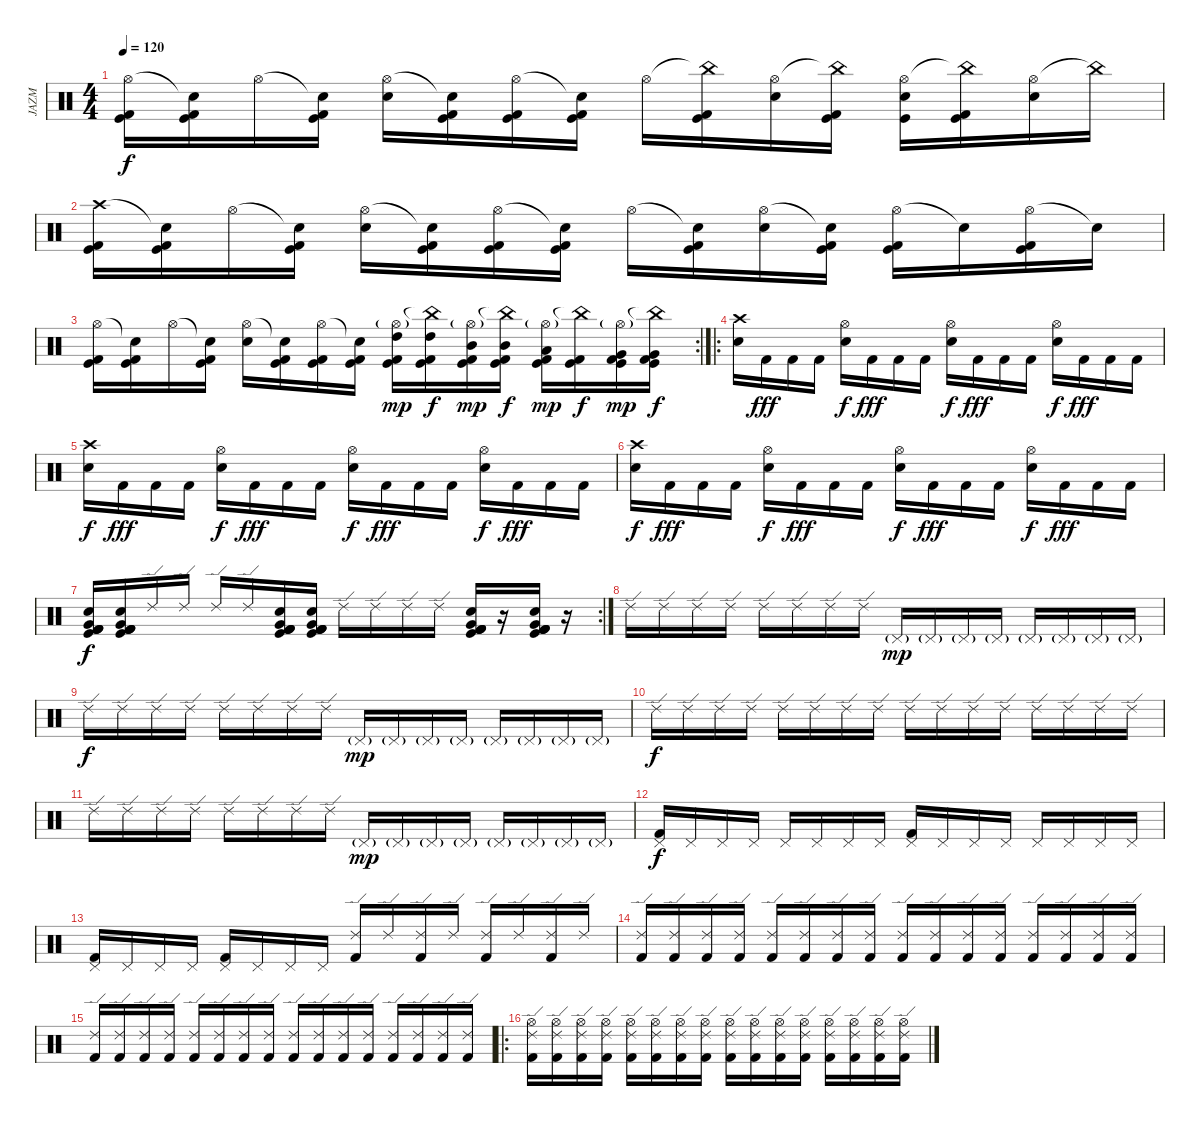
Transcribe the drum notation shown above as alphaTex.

\track ("JAZM" "JAZM") {instrument percussion}
\staff {score}
\articulation defaults
\ts (4 4)
\tempo 120
\clef neutral
\ks c
("Hi-Hat (open)" "Kick (hit) 2" "Kick (hit)").16{dy f} ("Snare (hit)"{t} "Kick (hit) 2" "Kick (hit)").16 "Hi-Hat (open)".16 ("Snare (hit)"{t} "Kick (hit) 2" "Kick (hit)").16 ("Hi-Hat (open)" "Electric Snare (hit)").16 ("Snare (hit)"{t} "Kick (hit) 2" "Kick (hit)").16 ("Hi-Hat (open)" "Kick (hit) 2" "Kick (hit)").16 ("Snare (hit)"{t} "Kick (hit) 2" "Kick (hit)").16 "Hi-Hat (open)".16 ("China (hit)"{t} "Kick (hit) 2" "Kick (hit)").16 ("Hi-Hat (open)" "Electric Snare (hit)").16 ("China (hit)"{t} "Kick (hit) 2" "Kick (hit)").16 ("Hi-Hat (open)" "Electric Snare (hit)" "Kick (hit)").16 ("China (hit)"{t} "Kick (hit) 2" "Kick (hit)").16 ("Hi-Hat (open)" "Electric Snare (hit)").16 "China (hit)"{t}.16 |
("Crash high (hit)" "Kick (hit) 2" "Kick (hit)").16 ("Snare (hit)"{t} "Kick (hit) 2" "Kick (hit)").16 "Hi-Hat (open)".16 ("Snare (hit)"{t} "Kick (hit) 2" "Kick (hit)").16 ("Hi-Hat (open)" "Electric Snare (hit)").16 ("Snare (hit)"{t} "Kick (hit) 2" "Kick (hit)").16 ("Hi-Hat (open)" "Kick (hit) 2" "Kick (hit)").16 ("Snare (hit)"{t} "Kick (hit) 2" "Kick (hit)").16 "Hi-Hat (open)".16 ("Snare (hit)"{t} "Kick (hit) 2" "Kick (hit)").16 ("Hi-Hat (open)" "Electric Snare (hit)").16 ("Snare (hit)"{t} "Kick (hit) 2" "Kick (hit)").16 ("Hi-Hat (open)" "Kick (hit) 2" "Kick (hit)").16 "Snare (hit)"{t}.16 ("Hi-Hat (open)" "Kick (hit) 2" "Kick (hit)").16 "Snare (hit)"{t}.16 |
\rc 2
("Hi-Hat (open)" "Kick (hit) 2" "Kick (hit)").16 ("Snare (hit)"{t} "Kick (hit) 2" "Kick (hit)").16 "Hi-Hat (open)".16 ("Snare (hit)"{t} "Kick (hit) 2" "Kick (hit)").16 ("Hi-Hat (open)" "Electric Snare (hit)").16 ("Snare (hit)"{t} "Kick (hit) 2" "Kick (hit)").16 ("Hi-Hat (open)" "Kick (hit) 2" "Kick (hit)").16 ("Snare (hit)"{t} "Kick (hit) 2" "Kick (hit)").16 ("Hi-Hat (open)"{g} "High Tom (hit)" "Kick (hit) 2" "Kick (hit)").16{dy mp} ("China (hit)"{t} "High Tom (hit)" "Kick (hit) 2" "Kick (hit)").16{dy f} ("Hi-Hat (open)"{g} "Mid Tom (hit)" "Kick (hit) 2" "Kick (hit)").16{dy mp} ("China (hit)"{t} "Mid Tom (hit)" "Kick (hit) 2" "Kick (hit)").16{dy f} ("Hi-Hat (open)"{g} "Low Tom (hit)" "Kick (hit) 2" "Kick (hit)").16{dy mp} ("China (hit)"{t} "Kick (hit) 2" "Kick (hit)").16{dy f} ("Hi-Hat (open)"{g} "Very Low Tom (hit)" "Kick (hit) 2" "Kick (hit)").16{dy mp} ("China (hit)"{t} "Very Low Tom (hit)" "Kick (hit) 2" "Kick (hit)").16{dy f} |
\ro
("Crash high (hit)" "Electric Snare (hit)").16 "Kick (hit) 2".16{dy fff} "Kick (hit) 2".16 "Kick (hit) 2".16 ("Hi-Hat (open)" "Electric Snare (hit)").16{dy f} "Kick (hit) 2".16{dy fff} "Kick (hit) 2".16 "Kick (hit) 2".16 ("Hi-Hat (open)" "Electric Snare (hit)").16{dy f} "Kick (hit) 2".16{dy fff} "Kick (hit) 2".16 "Kick (hit) 2".16 ("Hi-Hat (open)" "Electric Snare (hit)").16{dy f} "Kick (hit) 2".16{dy fff} "Kick (hit) 2".16 "Kick (hit) 2".16 |
("Crash high (hit)" "Electric Snare (hit)").16{dy f} "Kick (hit) 2".16{dy fff} "Kick (hit) 2".16 "Kick (hit) 2".16 ("Hi-Hat (open)" "Electric Snare (hit)").16{dy f} "Kick (hit) 2".16{dy fff} "Kick (hit) 2".16 "Kick (hit) 2".16 ("Hi-Hat (open)" "Electric Snare (hit)").16{dy f} "Kick (hit) 2".16{dy fff} "Kick (hit) 2".16 "Kick (hit) 2".16 ("Hi-Hat (open)" "Electric Snare (hit)").16{dy f} "Kick (hit) 2".16{dy fff} "Kick (hit) 2".16 "Kick (hit) 2".16 |
("Crash high (hit)" "Electric Snare (hit)").16{dy f} "Kick (hit) 2".16{dy fff} "Kick (hit) 2".16 "Kick (hit) 2".16 ("Hi-Hat (open)" "Electric Snare (hit)").16{dy f} "Kick (hit) 2".16{dy fff} "Kick (hit) 2".16 "Kick (hit) 2".16 ("Hi-Hat (open)" "Electric Snare (hit)").16{dy f} "Kick (hit) 2".16{dy fff} "Kick (hit) 2".16 "Kick (hit) 2".16 ("Hi-Hat (open)" "Electric Snare (hit)").16{dy f} "Kick (hit) 2".16{dy fff} "Kick (hit) 2".16 "Kick (hit) 2".16 |
\rc 2
("Kick (hit) 2" "Electric Snare (hit)" "Kick (hit)" "Kick (hit) 2" "Very Low Tom (hit)" "Kick (hit) 2").16{dy f} ("Kick (hit) 2" "Electric Snare (hit)" "Kick (hit)" "Kick (hit) 2" "Very Low Tom (hit)" "Kick (hit) 2").16 "Ride (edge) 2".16 "Ride (edge) 2".16 "Ride (edge) 2".16 "Ride (edge) 2".16 ("Kick (hit) 2" "Electric Snare (hit)" "Kick (hit)" "Kick (hit) 2" "Very Low Tom (hit)" "Kick (hit) 2").16 ("Kick (hit) 2" "Electric Snare (hit)" "Kick (hit)" "Kick (hit) 2" "Very Low Tom (hit)" "Kick (hit) 2").16 "Ride (edge) 2".16 "Ride (edge) 2".16 "Ride (edge) 2".16 "Ride (edge) 2".16 ("Kick (hit) 2" "Electric Snare (hit)" "Kick (hit)" "Kick (hit) 2" "Very Low Tom (hit)" "Kick (hit) 2").16 r.16 ("Kick (hit) 2" "Electric Snare (hit)" "Kick (hit)" "Kick (hit) 2" "Very Low Tom (hit)" "Kick (hit) 2").16 r.16 |
"Ride (edge) 2".16 "Ride (edge) 2".16 "Ride (edge) 2".16 "Ride (edge) 2".16 "Ride (edge) 2".16 "Ride (edge) 2".16 "Ride (edge) 2".16 "Ride (edge) 2".16 "Pedal Hi-Hat (hit)"{g}.16{dy mp} "Pedal Hi-Hat (hit)"{g}.16 "Pedal Hi-Hat (hit)"{g}.16 "Pedal Hi-Hat (hit)"{g}.16 "Pedal Hi-Hat (hit)"{g}.16 "Pedal Hi-Hat (hit)"{g}.16 "Pedal Hi-Hat (hit)"{g}.16 "Pedal Hi-Hat (hit)"{g}.16 |
"Ride (edge) 2".16{dy f} "Ride (edge) 2".16 "Ride (edge) 2".16 "Ride (edge) 2".16 "Ride (edge) 2".16 "Ride (edge) 2".16 "Ride (edge) 2".16 "Ride (edge) 2".16 "Pedal Hi-Hat (hit)"{g}.16{dy mp} "Pedal Hi-Hat (hit)"{g}.16 "Pedal Hi-Hat (hit)"{g}.16 "Pedal Hi-Hat (hit)"{g}.16 "Pedal Hi-Hat (hit)"{g}.16 "Pedal Hi-Hat (hit)"{g}.16 "Pedal Hi-Hat (hit)"{g}.16 "Pedal Hi-Hat (hit)"{g}.16 |
"Ride (edge) 2".16{dy f} "Ride (edge) 2".16 "Ride (edge) 2".16 "Ride (edge) 2".16 "Ride (edge) 2".16 "Ride (edge) 2".16 "Ride (edge) 2".16 "Ride (edge) 2".16 "Ride (edge) 2".16 "Ride (edge) 2".16 "Ride (edge) 2".16 "Ride (edge) 2".16 "Ride (edge) 2".16 "Ride (edge) 2".16 "Ride (edge) 2".16 "Ride (edge) 2".16 |
"Ride (edge) 2".16 "Ride (edge) 2".16 "Ride (edge) 2".16 "Ride (edge) 2".16 "Ride (edge) 2".16 "Ride (edge) 2".16 "Ride (edge) 2".16 "Ride (edge) 2".16 "Pedal Hi-Hat (hit)"{g}.16{dy mp} "Pedal Hi-Hat (hit)"{g}.16 "Pedal Hi-Hat (hit)"{g}.16 "Pedal Hi-Hat (hit)"{g}.16 "Pedal Hi-Hat (hit)"{g}.16 "Pedal Hi-Hat (hit)"{g}.16 "Pedal Hi-Hat (hit)"{g}.16 "Pedal Hi-Hat (hit)"{g}.16 |
("Kick (hit) 2" "Pedal Hi-Hat (hit)").16{dy f} "Pedal Hi-Hat (hit)".16 "Pedal Hi-Hat (hit)".16 "Pedal Hi-Hat (hit)".16 "Pedal Hi-Hat (hit)".16 "Pedal Hi-Hat (hit)".16 "Pedal Hi-Hat (hit)".16 "Pedal Hi-Hat (hit)".16 ("Kick (hit) 2" "Pedal Hi-Hat (hit)").16 "Pedal Hi-Hat (hit)".16 "Pedal Hi-Hat (hit)".16 "Pedal Hi-Hat (hit)".16 "Pedal Hi-Hat (hit)".16 "Pedal Hi-Hat (hit)".16 "Pedal Hi-Hat (hit)".16 "Pedal Hi-Hat (hit)".16 |
("Kick (hit) 2" "Pedal Hi-Hat (hit)").16 "Pedal Hi-Hat (hit)".16 "Pedal Hi-Hat (hit)".16 "Pedal Hi-Hat (hit)".16 ("Kick (hit) 2" "Pedal Hi-Hat (hit)").16 "Pedal Hi-Hat (hit)".16 "Pedal Hi-Hat (hit)".16 "Pedal Hi-Hat (hit)".16 ("Kick (hit) 2" "Ride (edge) 2").16 "Ride (edge) 2".16 ("Kick (hit) 2" "Ride (edge) 2").16 "Ride (edge) 2".16 ("Kick (hit) 2" "Ride (edge) 2").16 "Ride (edge) 2".16 ("Kick (hit) 2" "Ride (edge) 2").16 "Ride (edge) 2".16 |
("Kick (hit) 2" "Ride (edge) 2").16 ("Kick (hit) 2" "Ride (edge) 2").16 ("Kick (hit) 2" "Ride (edge) 2").16 ("Kick (hit) 2" "Ride (edge) 2").16 ("Kick (hit) 2" "Ride (edge) 2").16 ("Kick (hit) 2" "Ride (edge) 2").16 ("Kick (hit) 2" "Ride (edge) 2").16 ("Kick (hit) 2" "Ride (edge) 2").16 ("Kick (hit) 2" "Ride (edge) 2").16 ("Kick (hit) 2" "Ride (edge) 2").16 ("Kick (hit) 2" "Ride (edge) 2").16 ("Kick (hit) 2" "Ride (edge) 2").16 ("Kick (hit) 2" "Ride (edge) 2").16 ("Kick (hit) 2" "Ride (edge) 2").16 ("Kick (hit) 2" "Ride (edge) 2").16 ("Kick (hit) 2" "Ride (edge) 2").16 |
("Kick (hit) 2" "Ride (edge) 2").16 ("Kick (hit) 2" "Ride (edge) 2").16 ("Kick (hit) 2" "Ride (edge) 2").16 ("Kick (hit) 2" "Ride (edge) 2").16 ("Kick (hit) 2" "Ride (edge) 2").16 ("Kick (hit) 2" "Ride (edge) 2").16 ("Kick (hit) 2" "Ride (edge) 2").16 ("Kick (hit) 2" "Ride (edge) 2").16 ("Kick (hit) 2" "Ride (edge) 2").16 ("Kick (hit) 2" "Ride (edge) 2").16 ("Kick (hit) 2" "Ride (edge) 2").16 ("Kick (hit) 2" "Ride (edge) 2").16 ("Kick (hit) 2" "Ride (edge) 2").16 ("Kick (hit) 2" "Ride (edge) 2").16 ("Kick (hit) 2" "Ride (edge) 2").16 ("Kick (hit) 2" "Ride (edge) 2").16 |
\ro
("Kick (hit) 2" "Hi-Hat (open)" "Ride (edge) 2").16 ("Kick (hit) 2" "Hi-Hat (open)" "Ride (edge) 2").16 ("Kick (hit) 2" "Hi-Hat (open)" "Ride (edge) 2").16 ("Kick (hit) 2" "Hi-Hat (open)" "Ride (edge) 2").16 ("Kick (hit) 2" "Hi-Hat (open)" "Ride (edge) 2").16 ("Kick (hit) 2" "Hi-Hat (open)" "Ride (edge) 2").16 ("Kick (hit) 2" "Hi-Hat (open)" "Ride (edge) 2").16 ("Kick (hit) 2" "Hi-Hat (open)" "Ride (edge) 2").16 ("Kick (hit) 2" "Hi-Hat (open)" "Ride (edge) 2").16 ("Kick (hit) 2" "Hi-Hat (open)" "Ride (edge) 2").16 ("Kick (hit) 2" "Hi-Hat (open)" "Ride (edge) 2").16 ("Kick (hit) 2" "Hi-Hat (open)" "Ride (edge) 2").16 ("Kick (hit) 2" "Hi-Hat (open)" "Ride (edge) 2").16 ("Kick (hit) 2" "Hi-Hat (open)" "Ride (edge) 2").16 ("Kick (hit) 2" "Hi-Hat (open)" "Ride (edge) 2").16 ("Kick (hit) 2" "Hi-Hat (open)" "Ride (edge) 2").16
